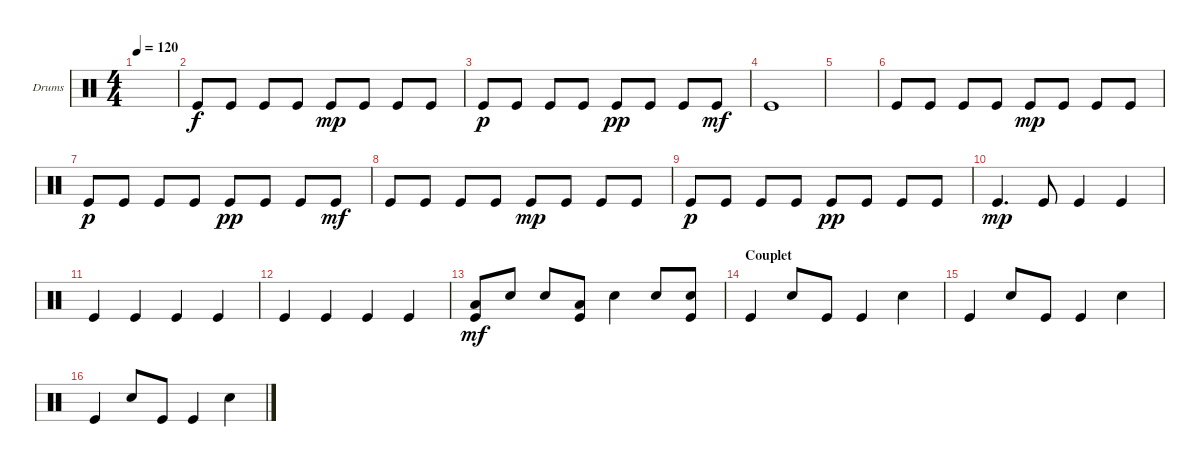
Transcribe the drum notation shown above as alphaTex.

\defaultSystemsLayout 4
\bracketExtendMode groupsimilarinstruments
\firstSystemTrackNameOrientation horizontal
\otherSystemsTrackNameOrientation horizontal
\track ("Drumkit" "Drums") {multiBarRest instrument percussion}
\staff {score}
\articulation defaults
\ts (4 4)
\tempo 120
\clef neutral
\ks c
|
"Kick (hit)".8 "Kick (hit)".8 "Kick (hit)".8 "Kick (hit)".8 "Kick (hit)".8{dy mp} "Kick (hit)".8 "Kick (hit)".8 "Kick (hit)".8 |
"Kick (hit)".8{dy p} "Kick (hit)".8 "Kick (hit)".8 "Kick (hit)".8 "Kick (hit)".8{dy pp} "Kick (hit)".8 "Kick (hit)".8 "Kick (hit)".8{dy mf} |
"Kick (hit)".1 |
|
"Kick (hit)".8 "Kick (hit)".8 "Kick (hit)".8 "Kick (hit)".8 "Kick (hit)".8{dy mp} "Kick (hit)".8 "Kick (hit)".8 "Kick (hit)".8 |
"Kick (hit)".8{dy p} "Kick (hit)".8 "Kick (hit)".8 "Kick (hit)".8 "Kick (hit)".8{dy pp} "Kick (hit)".8 "Kick (hit)".8 "Kick (hit)".8{dy mf} |
"Kick (hit)".8 "Kick (hit)".8 "Kick (hit)".8 "Kick (hit)".8 "Kick (hit)".8{dy mp} "Kick (hit)".8 "Kick (hit)".8 "Kick (hit)".8 |
"Kick (hit)".8{dy p} "Kick (hit)".8 "Kick (hit)".8 "Kick (hit)".8 "Kick (hit)".8{dy pp} "Kick (hit)".8 "Kick (hit)".8 "Kick (hit)".8 |
"Kick (hit)".4{d dy mp} "Kick (hit)".8 "Kick (hit)".4 "Kick (hit)".4 |
"Kick (hit)".4 "Kick (hit)".4 "Kick (hit)".4 "Kick (hit)".4 |
"Kick (hit)".4 "Kick (hit)".4 "Kick (hit)".4 "Kick (hit)".4 |
("Kick (hit)" "Low Tom (hit)").8{dy mf} "Snare (hit) 2".8 "Snare (hit) 2".8 ("Kick (hit)" "Low Tom (hit)").8 "Snare (hit) 2".4 "Snare (hit) 2".8 ("Snare (hit) 2" "Kick (hit)").8 |
\section ("" "Couplet")
"Kick (hit)".4 "Snare (hit) 2".8 "Kick (hit)".8 "Kick (hit)".4 "Snare (hit) 2".4 |
"Kick (hit)".4 "Snare (hit) 2".8 "Kick (hit)".8 "Kick (hit)".4 "Snare (hit) 2".4 |
"Kick (hit)".4 "Snare (hit) 2".8 "Kick (hit)".8 "Kick (hit)".4 "Snare (hit) 2".4
